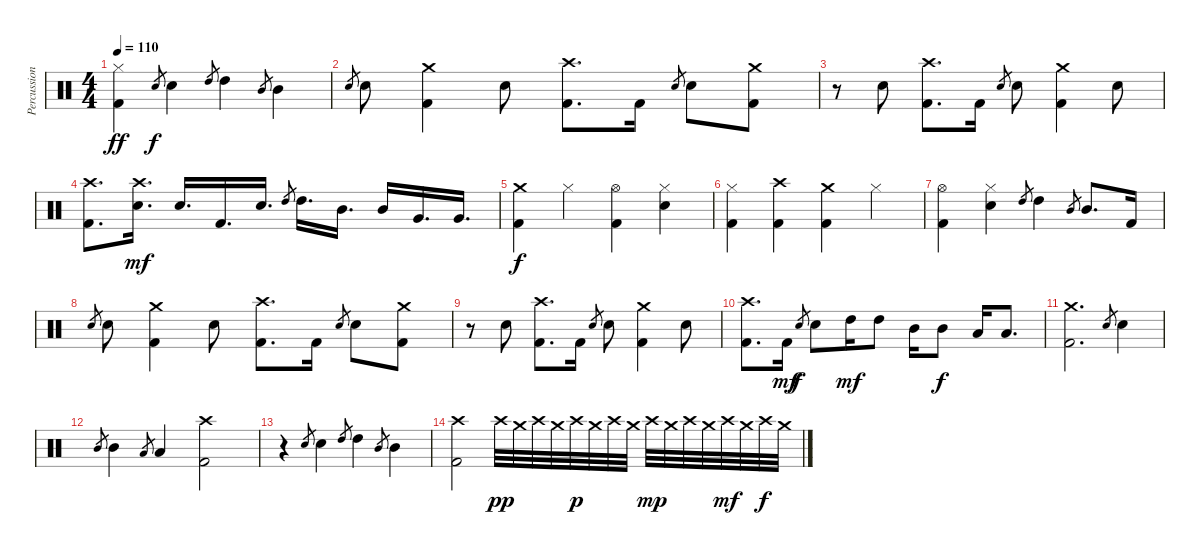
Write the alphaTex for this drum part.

\track ("Percussion" "Percussion") {instrument percussion}
\staff {score}
\articulation defaults
\ts (4 4)
\tempo 110
\clef neutral
\ks c
("Hi-Hat (closed)" "Kick (hit) 2").4{dy ff} "Electric Snare (hit)".8{gr dy f} "Electric Snare (hit)".4 "High Tom (hit)".8{gr} "High Tom (hit)".4 "Mid Tom (hit)".8{gr} "Mid Tom (hit)".4 |
"Electric Snare (hit)".8{gr} "Electric Snare (hit)".8 ("Crash medium (hit)" "Kick (hit) 2").4 "Electric Snare (hit)".8 ("Crash high (hit)" "Kick (hit) 2").8{d} "Kick (hit) 2".16 "Electric Snare (hit)".8{gr} "Electric Snare (hit)".8 ("Crash medium (hit)" "Kick (hit) 2").8 |
r.8 "Electric Snare (hit)".8 ("Crash high (hit)" "Kick (hit) 2").8{d} "Kick (hit) 2".16 "Electric Snare (hit)".8{gr} "Electric Snare (hit)".8 ("Crash medium (hit)" "Kick (hit) 2").4 "Electric Snare (hit)".8 |
("Crash high (hit)" "Kick (hit) 2").8{d} ("Crash high (hit)" "Electric Snare (hit)").16{d dy mf} "Electric Snare (hit)".16{d} "Kick (hit) 2".16{d} "Electric Snare (hit)".16{d} "High Tom (hit)".8{gr} "High Tom (hit)".16{d} "Mid Tom (hit)".16{d} "Mid Tom (hit)".16 "Very Low Tom (hit)".16{d} "Very Low Tom (hit)".16{d} |
("Crash medium (hit)" "Kick (hit) 2").4{dy f} "Hi-Hat (closed)".4 ("Hi-Hat (open)" "Kick (hit) 2").4 ("Hi-Hat (closed)" "Electric Snare (hit)").4 |
("Hi-Hat (closed)" "Kick (hit) 2").4 ("Crash high (hit)" "Kick (hit) 2").4 ("Crash medium (hit)" "Kick (hit) 2").4 "Hi-Hat (closed)".4 |
("Hi-Hat (open)" "Kick (hit) 2").4 ("Hi-Hat (closed)" "Electric Snare (hit)").4 "High Tom (hit)".8{gr} "High Tom (hit)".4 "Mid Tom (hit)".8{gr} "Mid Tom (hit)".8{d} "Kick (hit) 2".16 |
"Electric Snare (hit)".8{gr} "Electric Snare (hit)".8 ("Crash medium (hit)" "Kick (hit) 2").4 "Electric Snare (hit)".8 ("Crash high (hit)" "Kick (hit) 2").8{d} "Kick (hit) 2".16 "Electric Snare (hit)".8{gr} "Electric Snare (hit)".8 ("Crash medium (hit)" "Kick (hit) 2").8 |
r.8 "Electric Snare (hit)".8 ("Crash high (hit)" "Kick (hit) 2").8{d} "Kick (hit) 2".16 "Electric Snare (hit)".8{gr} "Electric Snare (hit)".8 ("Crash medium (hit)" "Kick (hit) 2").4 "Electric Snare (hit)".8 |
("Crash high (hit)" "Kick (hit) 2").8{d} "Kick (hit) 2".16{dy mf} "Electric Snare (hit)".8{gr dy f} "Electric Snare (hit)".8 "High Tom (hit)".16{dy mf} "High Tom (hit)".8 "Mid Tom (hit)".16 "Mid Tom (hit)".8{dy f} "Low Tom (hit)".16 "Low Tom (hit)".8{d} |
("Crash medium (hit)" "Kick (hit) 2").2{d} "Electric Snare (hit)".8{gr} "Electric Snare (hit)".4 |
"Mid Tom (hit)".8{gr} "Mid Tom (hit)".4 "Low Tom (hit)".8{gr} "Low Tom (hit)".4 ("Crash high (hit)" "Kick (hit) 2").2 |
r.4 "Electric Snare (hit)".8{gr} "Electric Snare (hit)".4 "High Tom (hit)".8{gr} "High Tom (hit)".4 "Mid Tom (hit)".8{gr} "Mid Tom (hit)".4 |
("Crash high (hit)" "Kick (hit) 2").2 "Crash high (hit)".32{dy pp} "Crash medium (hit)".32 "Crash high (hit)".32 "Crash medium (hit)".32 "Crash high (hit)".32{dy p} "Crash medium (hit)".32 "Crash high (hit)".32 "Crash medium (hit)".32 "Crash high (hit)".32{dy mp} "Crash medium (hit)".32 "Crash high (hit)".32 "Crash medium (hit)".32 "Crash high (hit)".32{dy mf} "Crash medium (hit)".32 "Crash high (hit)".32{dy f} "Crash medium (hit)".32
